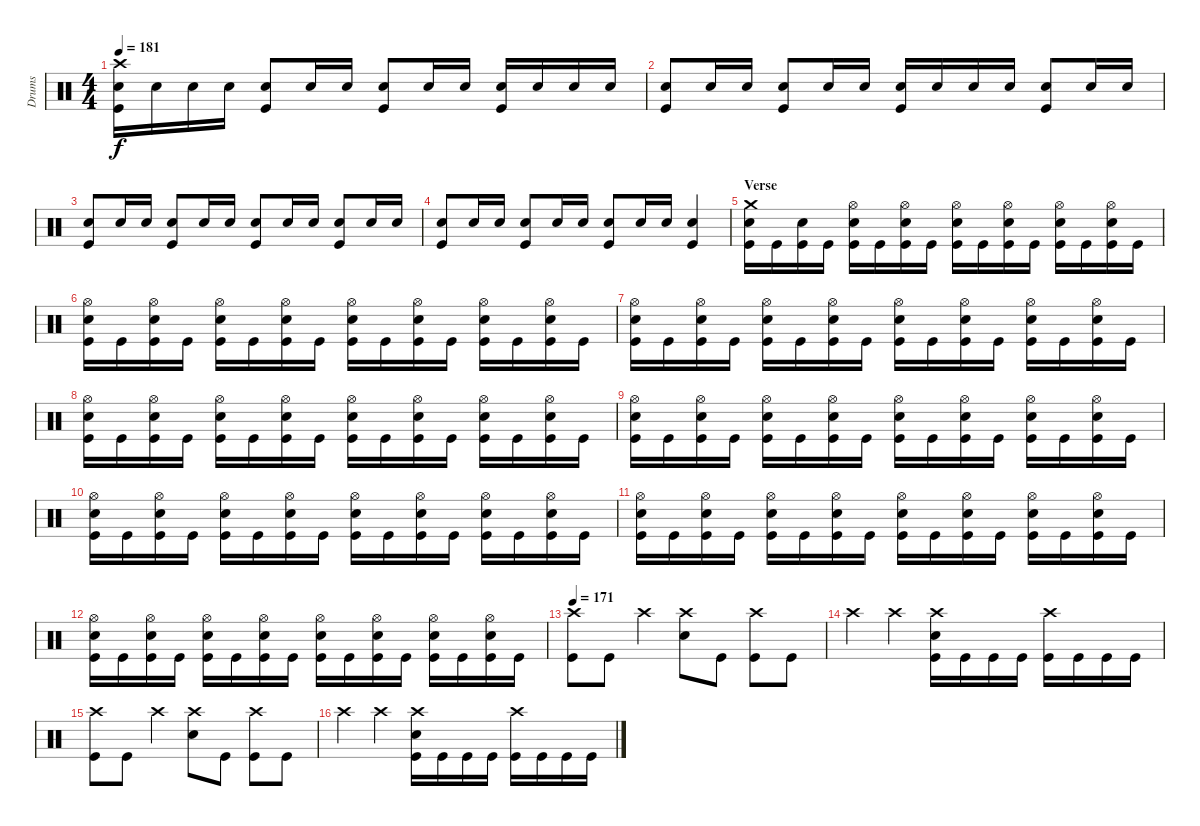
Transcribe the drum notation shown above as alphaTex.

\track ("Drums" "Drums") {instrument percussion}
\staff {score}
\articulation defaults
\ts (4 4)
\tempo 181
\clef neutral
\ks c
("Crash high (hit)" "Snare (hit) 2" "Kick (hit)").16{dy f} "Snare (hit) 2".16 "Snare (hit) 2".16 "Snare (hit) 2".16 ("Snare (hit) 2" "Kick (hit)").8 "Snare (hit) 2".16 "Snare (hit) 2".16 ("Snare (hit) 2" "Kick (hit)").8 "Snare (hit) 2".16 "Snare (hit) 2".16 ("Snare (hit) 2" "Kick (hit)").16 "Snare (hit) 2".16 "Snare (hit) 2".16 "Snare (hit) 2".16 |
("Snare (hit) 2" "Kick (hit)").8 "Snare (hit) 2".16 "Snare (hit) 2".16 ("Snare (hit) 2" "Kick (hit)").8 "Snare (hit) 2".16 "Snare (hit) 2".16 ("Snare (hit) 2" "Kick (hit)").16 "Snare (hit) 2".16 "Snare (hit) 2".16 "Snare (hit) 2".16 ("Snare (hit) 2" "Kick (hit)").8 "Snare (hit) 2".16 "Snare (hit) 2".16 |
("Snare (hit) 2" "Kick (hit)").8 "Snare (hit) 2".16 "Snare (hit) 2".16 ("Snare (hit) 2" "Kick (hit)").8 "Snare (hit) 2".16 "Snare (hit) 2".16 ("Snare (hit) 2" "Kick (hit)").8 "Snare (hit) 2".16 "Snare (hit) 2".16 ("Snare (hit) 2" "Kick (hit)").8 "Snare (hit) 2".16 "Snare (hit) 2".16 |
("Snare (hit) 2" "Kick (hit)").8 "Snare (hit) 2".16 "Snare (hit) 2".16 ("Snare (hit) 2" "Kick (hit)").8 "Snare (hit) 2".16 "Snare (hit) 2".16 ("Snare (hit) 2" "Kick (hit)").8 "Snare (hit) 2".16 "Snare (hit) 2".16 ("Snare (hit) 2" "Kick (hit)").4 |
\section ("" "Verse")
("Crash medium (hit)" "Snare (hit) 2" "Kick (hit)").16 "Kick (hit)".16 ("Snare (hit) 2" "Kick (hit)").16 "Kick (hit)".16 ("Hi-Hat (open)" "Snare (hit) 2" "Kick (hit)").16 "Kick (hit)".16 ("Hi-Hat (open)" "Snare (hit) 2" "Kick (hit)").16 "Kick (hit)".16 ("Hi-Hat (open)" "Snare (hit) 2" "Kick (hit)").16 "Kick (hit)".16 ("Hi-Hat (open)" "Snare (hit) 2" "Kick (hit)").16 "Kick (hit)".16 ("Hi-Hat (open)" "Snare (hit) 2" "Kick (hit)").16 "Kick (hit)".16 ("Hi-Hat (open)" "Snare (hit) 2" "Kick (hit)").16 "Kick (hit)".16 |
("Hi-Hat (open)" "Snare (hit) 2" "Kick (hit)").16 "Kick (hit)".16 ("Hi-Hat (open)" "Snare (hit) 2" "Kick (hit)").16 "Kick (hit)".16 ("Hi-Hat (open)" "Snare (hit) 2" "Kick (hit)").16 "Kick (hit)".16 ("Hi-Hat (open)" "Snare (hit) 2" "Kick (hit)").16 "Kick (hit)".16 ("Hi-Hat (open)" "Snare (hit) 2" "Kick (hit)").16 "Kick (hit)".16 ("Hi-Hat (open)" "Snare (hit) 2" "Kick (hit)").16 "Kick (hit)".16 ("Hi-Hat (open)" "Snare (hit) 2" "Kick (hit)").16 "Kick (hit)".16 ("Hi-Hat (open)" "Snare (hit) 2" "Kick (hit)").16 "Kick (hit)".16 |
("Hi-Hat (open)" "Snare (hit) 2" "Kick (hit)").16 "Kick (hit)".16 ("Hi-Hat (open)" "Snare (hit) 2" "Kick (hit)").16 "Kick (hit)".16 ("Hi-Hat (open)" "Snare (hit) 2" "Kick (hit)").16 "Kick (hit)".16 ("Hi-Hat (open)" "Snare (hit) 2" "Kick (hit)").16 "Kick (hit)".16 ("Hi-Hat (open)" "Snare (hit) 2" "Kick (hit)").16 "Kick (hit)".16 ("Hi-Hat (open)" "Snare (hit) 2" "Kick (hit)").16 "Kick (hit)".16 ("Hi-Hat (open)" "Snare (hit) 2" "Kick (hit)").16 "Kick (hit)".16 ("Hi-Hat (open)" "Snare (hit) 2" "Kick (hit)").16 "Kick (hit)".16 |
("Hi-Hat (open)" "Snare (hit) 2" "Kick (hit)").16 "Kick (hit)".16 ("Hi-Hat (open)" "Snare (hit) 2" "Kick (hit)").16 "Kick (hit)".16 ("Hi-Hat (open)" "Snare (hit) 2" "Kick (hit)").16 "Kick (hit)".16 ("Hi-Hat (open)" "Snare (hit) 2" "Kick (hit)").16 "Kick (hit)".16 ("Hi-Hat (open)" "Snare (hit) 2" "Kick (hit)").16 "Kick (hit)".16 ("Hi-Hat (open)" "Snare (hit) 2" "Kick (hit)").16 "Kick (hit)".16 ("Hi-Hat (open)" "Snare (hit) 2" "Kick (hit)").16 "Kick (hit)".16 ("Hi-Hat (open)" "Snare (hit) 2" "Kick (hit)").16 "Kick (hit)".16 |
("Hi-Hat (open)" "Snare (hit) 2" "Kick (hit)").16 "Kick (hit)".16 ("Hi-Hat (open)" "Snare (hit) 2" "Kick (hit)").16 "Kick (hit)".16 ("Hi-Hat (open)" "Snare (hit) 2" "Kick (hit)").16 "Kick (hit)".16 ("Hi-Hat (open)" "Snare (hit) 2" "Kick (hit)").16 "Kick (hit)".16 ("Hi-Hat (open)" "Snare (hit) 2" "Kick (hit)").16 "Kick (hit)".16 ("Hi-Hat (open)" "Snare (hit) 2" "Kick (hit)").16 "Kick (hit)".16 ("Hi-Hat (open)" "Snare (hit) 2" "Kick (hit)").16 "Kick (hit)".16 ("Hi-Hat (open)" "Snare (hit) 2" "Kick (hit)").16 "Kick (hit)".16 |
("Hi-Hat (open)" "Snare (hit) 2" "Kick (hit)").16 "Kick (hit)".16 ("Hi-Hat (open)" "Snare (hit) 2" "Kick (hit)").16 "Kick (hit)".16 ("Hi-Hat (open)" "Snare (hit) 2" "Kick (hit)").16 "Kick (hit)".16 ("Hi-Hat (open)" "Snare (hit) 2" "Kick (hit)").16 "Kick (hit)".16 ("Hi-Hat (open)" "Snare (hit) 2" "Kick (hit)").16 "Kick (hit)".16 ("Hi-Hat (open)" "Snare (hit) 2" "Kick (hit)").16 "Kick (hit)".16 ("Hi-Hat (open)" "Snare (hit) 2" "Kick (hit)").16 "Kick (hit)".16 ("Hi-Hat (open)" "Snare (hit) 2" "Kick (hit)").16 "Kick (hit)".16 |
("Hi-Hat (open)" "Snare (hit) 2" "Kick (hit)").16 "Kick (hit)".16 ("Hi-Hat (open)" "Snare (hit) 2" "Kick (hit)").16 "Kick (hit)".16 ("Hi-Hat (open)" "Snare (hit) 2" "Kick (hit)").16 "Kick (hit)".16 ("Hi-Hat (open)" "Snare (hit) 2" "Kick (hit)").16 "Kick (hit)".16 ("Hi-Hat (open)" "Snare (hit) 2" "Kick (hit)").16 "Kick (hit)".16 ("Hi-Hat (open)" "Snare (hit) 2" "Kick (hit)").16 "Kick (hit)".16 ("Hi-Hat (open)" "Snare (hit) 2" "Kick (hit)").16 "Kick (hit)".16 ("Hi-Hat (open)" "Snare (hit) 2" "Kick (hit)").16 "Kick (hit)".16 |
("Hi-Hat (open)" "Snare (hit) 2" "Kick (hit)").16 "Kick (hit)".16 ("Hi-Hat (open)" "Snare (hit) 2" "Kick (hit)").16 "Kick (hit)".16 ("Hi-Hat (open)" "Snare (hit) 2" "Kick (hit)").16 "Kick (hit)".16 ("Hi-Hat (open)" "Snare (hit) 2" "Kick (hit)").16 "Kick (hit)".16 ("Hi-Hat (open)" "Snare (hit) 2" "Kick (hit)").16 "Kick (hit)".16 ("Hi-Hat (open)" "Snare (hit) 2" "Kick (hit)").16 "Kick (hit)".16 ("Hi-Hat (open)" "Snare (hit) 2" "Kick (hit)").16 "Kick (hit)".16 ("Hi-Hat (open)" "Snare (hit) 2" "Kick (hit)").16 "Kick (hit)".16 |
\tempo 171
("Crash high (hit)" "Kick (hit)").8 "Kick (hit)".8 "Crash high (hit)".4 ("Crash high (hit)" "Snare (hit) 2").8 "Kick (hit)".8 ("Crash high (hit)" "Kick (hit)").8 "Kick (hit)".8 |
"Crash high (hit)".4 "Crash high (hit)".4 ("Crash high (hit)" "Snare (hit) 2" "Kick (hit)").16 "Kick (hit)".16 "Kick (hit)".16 "Kick (hit)".16 ("Crash high (hit)" "Kick (hit)").16 "Kick (hit)".16 "Kick (hit)".16 "Kick (hit)".16 |
("Crash high (hit)" "Kick (hit)").8 "Kick (hit)".8 "Crash high (hit)".4 ("Crash high (hit)" "Snare (hit) 2").8 "Kick (hit)".8 ("Crash high (hit)" "Kick (hit)").8 "Kick (hit)".8 |
"Crash high (hit)".4 "Crash high (hit)".4 ("Crash high (hit)" "Snare (hit) 2" "Kick (hit)").16 "Kick (hit)".16 "Kick (hit)".16 "Kick (hit)".16 ("Crash high (hit)" "Kick (hit)").16 "Kick (hit)".16 "Kick (hit)".16 "Kick (hit)".16
